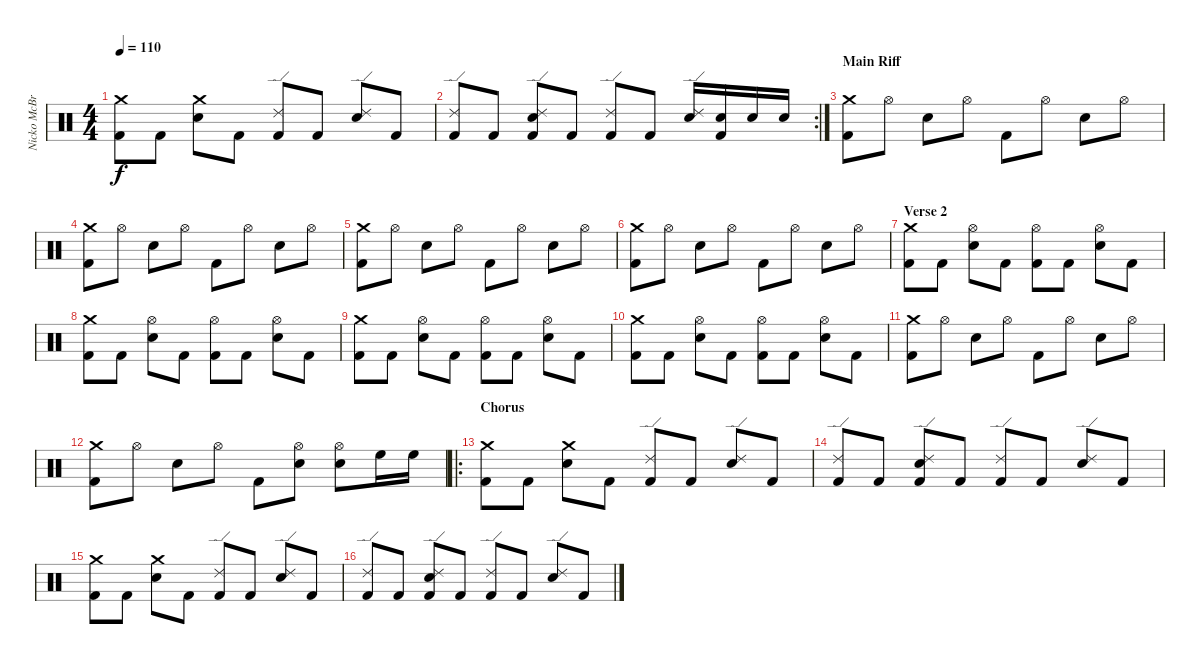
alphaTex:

\track ("Nicko McBrain" "Nicko McBr") {instrument percussion}
\staff {score}
\articulation defaults
\ts (4 4)
\tempo 110
\clef neutral
\ks c
("Crash medium (hit)" "Kick (hit) 2").8{dy f} "Kick (hit) 2".8 ("Snare (hit) 2" "Crash medium (hit)").8 "Kick (hit) 2".8 ("Ride (edge) 2" "Kick (hit) 2").8 "Kick (hit) 2".8 ("Snare (hit) 2" "Ride (edge) 2").8 "Kick (hit) 2".8 |
\rc 2
("Ride (edge) 2" "Kick (hit) 2").8 "Kick (hit) 2".8 ("Snare (hit) 2" "Ride (edge) 2" "Kick (hit) 2").8 "Kick (hit) 2".8 ("Ride (edge) 2" "Kick (hit) 2").8 "Kick (hit) 2".8 ("Snare (hit) 2" "Ride (edge) 2").16 ("Snare (hit) 2" "Kick (hit) 2").16 "Snare (hit) 2".16 "Snare (hit) 2".16 |
\section ("" "Main Riff")
("Crash medium (hit)" "Kick (hit) 2").8 "Hi-Hat (open)".8 "Snare (hit) 2".8 "Hi-Hat (open)".8 "Kick (hit) 2".8 "Hi-Hat (open)".8 "Snare (hit) 2".8 "Hi-Hat (open)".8 |
("Crash medium (hit)" "Kick (hit) 2").8 "Hi-Hat (open)".8 "Snare (hit) 2".8 "Hi-Hat (open)".8 "Kick (hit) 2".8 "Hi-Hat (open)".8 "Snare (hit) 2".8 "Hi-Hat (open)".8 |
("Crash medium (hit)" "Kick (hit) 2").8 "Hi-Hat (open)".8 "Snare (hit) 2".8 "Hi-Hat (open)".8 "Kick (hit) 2".8 "Hi-Hat (open)".8 "Snare (hit) 2".8 "Hi-Hat (open)".8 |
("Crash medium (hit)" "Kick (hit) 2").8 "Hi-Hat (open)".8 "Snare (hit) 2".8 "Hi-Hat (open)".8 "Kick (hit) 2".8 "Hi-Hat (open)".8 "Snare (hit) 2".8 "Hi-Hat (open)".8 |
\section ("" "Verse 2")
("Crash medium (hit)" "Kick (hit) 2").8 "Kick (hit) 2".8 ("Snare (hit) 2" "Hi-Hat (open)").8 "Kick (hit) 2".8 ("Hi-Hat (open)" "Kick (hit) 2").8 "Kick (hit) 2".8 ("Snare (hit) 2" "Hi-Hat (open)").8 "Kick (hit) 2".8 |
("Crash medium (hit)" "Kick (hit) 2").8 "Kick (hit) 2".8 ("Snare (hit) 2" "Hi-Hat (open)").8 "Kick (hit) 2".8 ("Hi-Hat (open)" "Kick (hit) 2").8 "Kick (hit) 2".8 ("Snare (hit) 2" "Hi-Hat (open)").8 "Kick (hit) 2".8 |
("Crash medium (hit)" "Kick (hit) 2").8 "Kick (hit) 2".8 ("Snare (hit) 2" "Hi-Hat (open)").8 "Kick (hit) 2".8 ("Hi-Hat (open)" "Kick (hit) 2").8 "Kick (hit) 2".8 ("Snare (hit) 2" "Hi-Hat (open)").8 "Kick (hit) 2".8 |
("Crash medium (hit)" "Kick (hit) 2").8 "Kick (hit) 2".8 ("Snare (hit) 2" "Hi-Hat (open)").8 "Kick (hit) 2".8 ("Hi-Hat (open)" "Kick (hit) 2").8 "Kick (hit) 2".8 ("Snare (hit) 2" "Hi-Hat (open)").8 "Kick (hit) 2".8 |
("Crash medium (hit)" "Kick (hit) 2").8 "Hi-Hat (open)".8 "Snare (hit) 2".8 "Hi-Hat (open)".8 "Kick (hit) 2".8 "Hi-Hat (open)".8 "Snare (hit) 2".8 "Hi-Hat (open)".8 |
("Crash medium (hit)" "Kick (hit) 2").8 "Hi-Hat (open)".8 "Snare (hit) 2".8 "Hi-Hat (open)".8 "Kick (hit) 2".8 ("Snare (hit) 2" "Hi-Hat (open)").8 ("Snare (hit) 2" "Hi-Hat (open)").8 "High Floor Tom (hit)".16 "High Floor Tom (hit)".16 |
\ro
\section ("" "Chorus")
("Crash medium (hit)" "Kick (hit) 2").8 "Kick (hit) 2".8 ("Snare (hit) 2" "Crash medium (hit)").8 "Kick (hit) 2".8 ("Ride (edge) 2" "Kick (hit) 2").8 "Kick (hit) 2".8 ("Snare (hit) 2" "Ride (edge) 2").8 "Kick (hit) 2".8 |
("Ride (edge) 2" "Kick (hit) 2").8 "Kick (hit) 2".8 ("Snare (hit) 2" "Ride (edge) 2" "Kick (hit) 2").8 "Kick (hit) 2".8 ("Ride (edge) 2" "Kick (hit) 2").8 "Kick (hit) 2".8 ("Snare (hit) 2" "Ride (edge) 2").8 "Kick (hit) 2".8 |
("Crash medium (hit)" "Kick (hit) 2").8 "Kick (hit) 2".8 ("Snare (hit) 2" "Crash medium (hit)").8 "Kick (hit) 2".8 ("Ride (edge) 2" "Kick (hit) 2").8 "Kick (hit) 2".8 ("Snare (hit) 2" "Ride (edge) 2").8 "Kick (hit) 2".8 |
("Ride (edge) 2" "Kick (hit) 2").8 "Kick (hit) 2".8 ("Snare (hit) 2" "Ride (edge) 2" "Kick (hit) 2").8 "Kick (hit) 2".8 ("Ride (edge) 2" "Kick (hit) 2").8 "Kick (hit) 2".8 ("Snare (hit) 2" "Ride (edge) 2").8 "Kick (hit) 2".8
